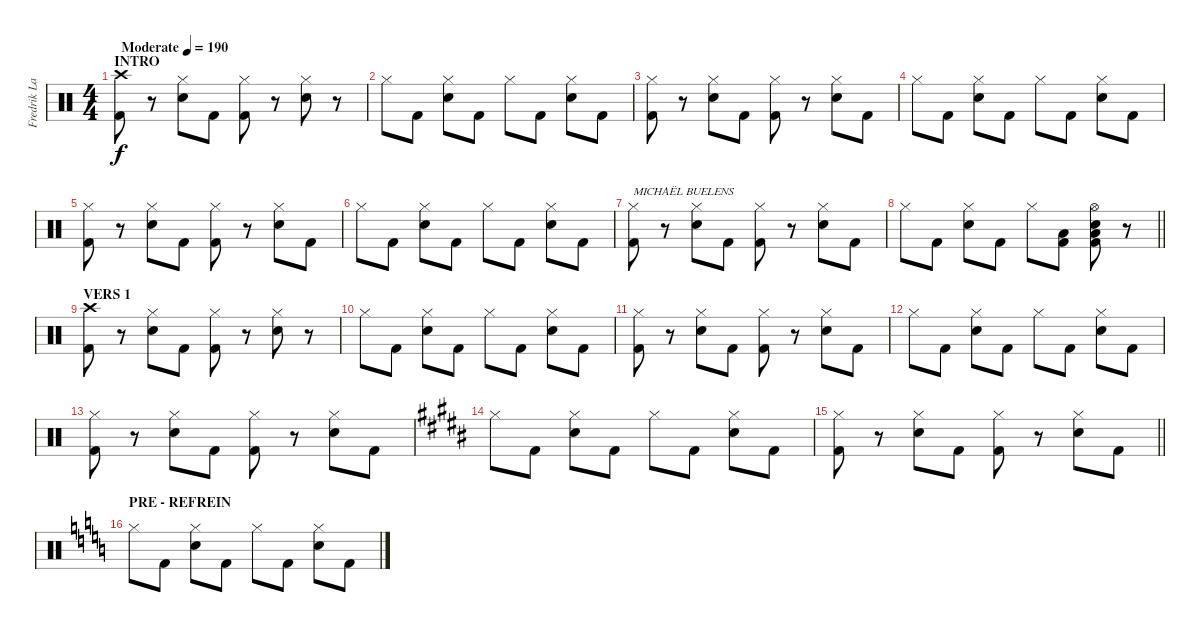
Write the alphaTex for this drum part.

\track ("Fredrik Larson" "Fredrik La") {instrument percussion}
\staff {score}
\articulation defaults
\ts (4 4)
\section ("" "INTRO")
\tempo (190 "Moderate")
\clef neutral
\ks c
("Crash high (hit)" "Kick (hit) 2").8{dy f} r.8 ("Hi-Hat (closed)" "Snare (hit) 2").8 "Kick (hit) 2".8 ("Hi-Hat (closed)" "Kick (hit) 2").8 r.8 ("Hi-Hat (closed)" "Snare (hit) 2").8 r.8 |
"Hi-Hat (closed)".8 "Kick (hit) 2".8 ("Hi-Hat (closed)" "Snare (hit) 2").8 "Kick (hit) 2".8 "Hi-Hat (closed)".8 "Kick (hit) 2".8 ("Hi-Hat (closed)" "Snare (hit) 2").8 "Kick (hit) 2".8 |
("Hi-Hat (closed)" "Kick (hit) 2").8 r.8 ("Hi-Hat (closed)" "Snare (hit) 2").8 "Kick (hit) 2".8 ("Hi-Hat (closed)" "Kick (hit) 2").8 r.8 ("Hi-Hat (closed)" "Snare (hit) 2").8 "Kick (hit) 2".8 |
"Hi-Hat (closed)".8 "Kick (hit) 2".8 ("Hi-Hat (closed)" "Snare (hit) 2").8 "Kick (hit) 2".8 "Hi-Hat (closed)".8 "Kick (hit) 2".8 ("Hi-Hat (closed)" "Snare (hit) 2").8 "Kick (hit) 2".8 |
("Hi-Hat (closed)" "Kick (hit) 2").8 r.8 ("Hi-Hat (closed)" "Snare (hit) 2").8 "Kick (hit) 2".8 ("Hi-Hat (closed)" "Kick (hit) 2").8 r.8 ("Hi-Hat (closed)" "Snare (hit) 2").8 "Kick (hit) 2".8 |
"Hi-Hat (closed)".8 "Kick (hit) 2".8 ("Hi-Hat (closed)" "Snare (hit) 2").8 "Kick (hit) 2".8 "Hi-Hat (closed)".8 "Kick (hit) 2".8 ("Hi-Hat (closed)" "Snare (hit) 2").8 "Kick (hit) 2".8 |
("Hi-Hat (closed)" "Kick (hit) 2").8{txt "MICHAËL BUELENS"} r.8 ("Hi-Hat (closed)" "Snare (hit) 2").8 "Kick (hit) 2".8 ("Hi-Hat (closed)" "Kick (hit) 2").8 r.8 ("Hi-Hat (closed)" "Snare (hit) 2").8 "Kick (hit) 2".8 |
\barLineRight lightlight "Hi-Hat (closed)".8 "Kick (hit) 2".8
("Hi-Hat (closed)" "Snare (hit) 2").8 "Kick (hit) 2".8 "Hi-Hat (closed)".8 ("Low Floor Tom (hit)" "Kick (hit) 2").8 ("Hi-Hat (open)" "Low Floor Tom (hit)" "Snare (hit) 2" "Kick (hit) 2").8 r.8 |
\section ("" "VERS 1")
("Crash high (hit)" "Kick (hit) 2").8 r.8 ("Hi-Hat (closed)" "Snare (hit) 2").8 "Kick (hit) 2".8 ("Hi-Hat (closed)" "Kick (hit) 2").8 r.8 ("Hi-Hat (closed)" "Snare (hit) 2").8 r.8 |
"Hi-Hat (closed)".8 "Kick (hit) 2".8 ("Hi-Hat (closed)" "Snare (hit) 2").8 "Kick (hit) 2".8 "Hi-Hat (closed)".8 "Kick (hit) 2".8 ("Hi-Hat (closed)" "Snare (hit) 2").8 "Kick (hit) 2".8 |
("Hi-Hat (closed)" "Kick (hit) 2").8 r.8 ("Hi-Hat (closed)" "Snare (hit) 2").8 "Kick (hit) 2".8 ("Hi-Hat (closed)" "Kick (hit) 2").8 r.8 ("Hi-Hat (closed)" "Snare (hit) 2").8 "Kick (hit) 2".8 |
"Hi-Hat (closed)".8 "Kick (hit) 2".8 ("Hi-Hat (closed)" "Snare (hit) 2").8 "Kick (hit) 2".8 "Hi-Hat (closed)".8 "Kick (hit) 2".8 ("Hi-Hat (closed)" "Snare (hit) 2").8 "Kick (hit) 2".8 |
("Hi-Hat (closed)" "Kick (hit) 2").8 r.8 ("Hi-Hat (closed)" "Snare (hit) 2").8 "Kick (hit) 2".8 ("Hi-Hat (closed)" "Kick (hit) 2").8 r.8 ("Hi-Hat (closed)" "Snare (hit) 2").8 "Kick (hit) 2".8 |
\ks b "Hi-Hat (closed)".8 "Kick (hit) 2".8
("Hi-Hat (closed)" "Snare (hit) 2").8 "Kick (hit) 2".8 "Hi-Hat (closed)".8 "Kick (hit) 2".8 ("Hi-Hat (closed)" "Snare (hit) 2").8 "Kick (hit) 2".8 |
\barLineRight lightlight
("Hi-Hat (closed)" "Kick (hit) 2").8 r.8 ("Hi-Hat (closed)" "Snare (hit) 2").8 "Kick (hit) 2".8 ("Hi-Hat (closed)" "Kick (hit) 2").8 r.8 ("Hi-Hat (closed)" "Snare (hit) 2").8 "Kick (hit) 2".8 |
\section ("" "PRE - REFREIN")
\ks c "Hi-Hat (closed)".8 "Kick (hit) 2".8
("Hi-Hat (closed)" "Snare (hit) 2").8 "Kick (hit) 2".8 "Hi-Hat (closed)".8 "Kick (hit) 2".8 ("Hi-Hat (closed)" "Snare (hit) 2").8 "Kick (hit) 2".8
